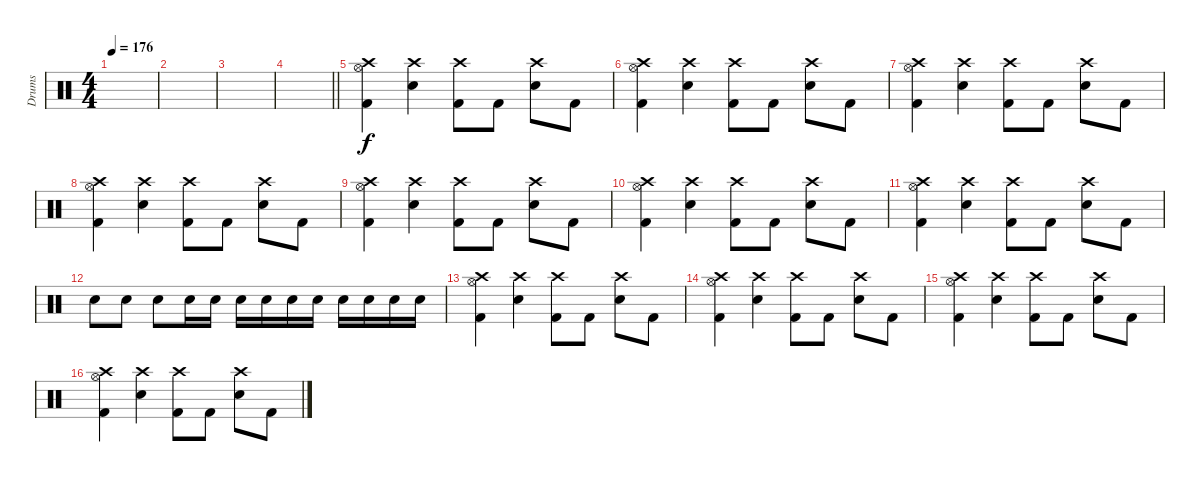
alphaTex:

\track ("Drums" "Drums") {instrument percussion}
\staff {score}
\articulation defaults
\ts (4 4)
\tempo 176
\clef neutral
\ks c
|
|
|
\barLineRight lightlight
|
("Kick (hit) 2" "Hi-Hat (open)" "Crash high (hit)").4 ("Snare (hit) 2" "Crash high (hit)").4 ("Kick (hit) 2" "Crash high (hit)").8 "Kick (hit) 2".8 ("Snare (hit) 2" "Crash high (hit)").8 "Kick (hit) 2".8 |
("Kick (hit) 2" "Hi-Hat (open)" "Crash high (hit)").4 ("Snare (hit) 2" "Crash high (hit)").4 ("Kick (hit) 2" "Crash high (hit)").8 "Kick (hit) 2".8 ("Snare (hit) 2" "Crash high (hit)").8 "Kick (hit) 2".8 |
("Kick (hit) 2" "Hi-Hat (open)" "Crash high (hit)").4 ("Snare (hit) 2" "Crash high (hit)").4 ("Kick (hit) 2" "Crash high (hit)").8 "Kick (hit) 2".8 ("Snare (hit) 2" "Crash high (hit)").8 "Kick (hit) 2".8 |
("Kick (hit) 2" "Hi-Hat (open)" "Crash high (hit)").4 ("Snare (hit) 2" "Crash high (hit)").4 ("Kick (hit) 2" "Crash high (hit)").8 "Kick (hit) 2".8 ("Snare (hit) 2" "Crash high (hit)").8 "Kick (hit) 2".8 |
("Kick (hit) 2" "Hi-Hat (open)" "Crash high (hit)").4 ("Snare (hit) 2" "Crash high (hit)").4 ("Kick (hit) 2" "Crash high (hit)").8 "Kick (hit) 2".8 ("Snare (hit) 2" "Crash high (hit)").8 "Kick (hit) 2".8 |
("Kick (hit) 2" "Hi-Hat (open)" "Crash high (hit)").4 ("Snare (hit) 2" "Crash high (hit)").4 ("Kick (hit) 2" "Crash high (hit)").8 "Kick (hit) 2".8 ("Snare (hit) 2" "Crash high (hit)").8 "Kick (hit) 2".8 |
("Kick (hit) 2" "Hi-Hat (open)" "Crash high (hit)").4 ("Snare (hit) 2" "Crash high (hit)").4 ("Kick (hit) 2" "Crash high (hit)").8 "Kick (hit) 2".8 ("Snare (hit) 2" "Crash high (hit)").8 "Kick (hit) 2".8 |
"Snare (hit) 2".8 "Snare (hit) 2".8 "Snare (hit) 2".8 "Snare (hit) 2".16 "Snare (hit) 2".16 "Snare (hit) 2".16 "Snare (hit) 2".16 "Snare (hit) 2".16 "Snare (hit) 2".16 "Snare (hit) 2".16 "Snare (hit) 2".16 "Snare (hit) 2".16 "Snare (hit) 2".16 |
("Kick (hit) 2" "Hi-Hat (open)" "Crash high (hit)").4 ("Snare (hit) 2" "Crash high (hit)").4 ("Kick (hit) 2" "Crash high (hit)").8 "Kick (hit) 2".8 ("Snare (hit) 2" "Crash high (hit)").8 "Kick (hit) 2".8 |
("Kick (hit) 2" "Hi-Hat (open)" "Crash high (hit)").4 ("Snare (hit) 2" "Crash high (hit)").4 ("Kick (hit) 2" "Crash high (hit)").8 "Kick (hit) 2".8 ("Snare (hit) 2" "Crash high (hit)").8 "Kick (hit) 2".8 |
("Kick (hit) 2" "Hi-Hat (open)" "Crash high (hit)").4 ("Snare (hit) 2" "Crash high (hit)").4 ("Kick (hit) 2" "Crash high (hit)").8 "Kick (hit) 2".8 ("Snare (hit) 2" "Crash high (hit)").8 "Kick (hit) 2".8 |
("Kick (hit) 2" "Hi-Hat (open)" "Crash high (hit)").4 ("Snare (hit) 2" "Crash high (hit)").4 ("Kick (hit) 2" "Crash high (hit)").8 "Kick (hit) 2".8 ("Snare (hit) 2" "Crash high (hit)").8 "Kick (hit) 2".8
